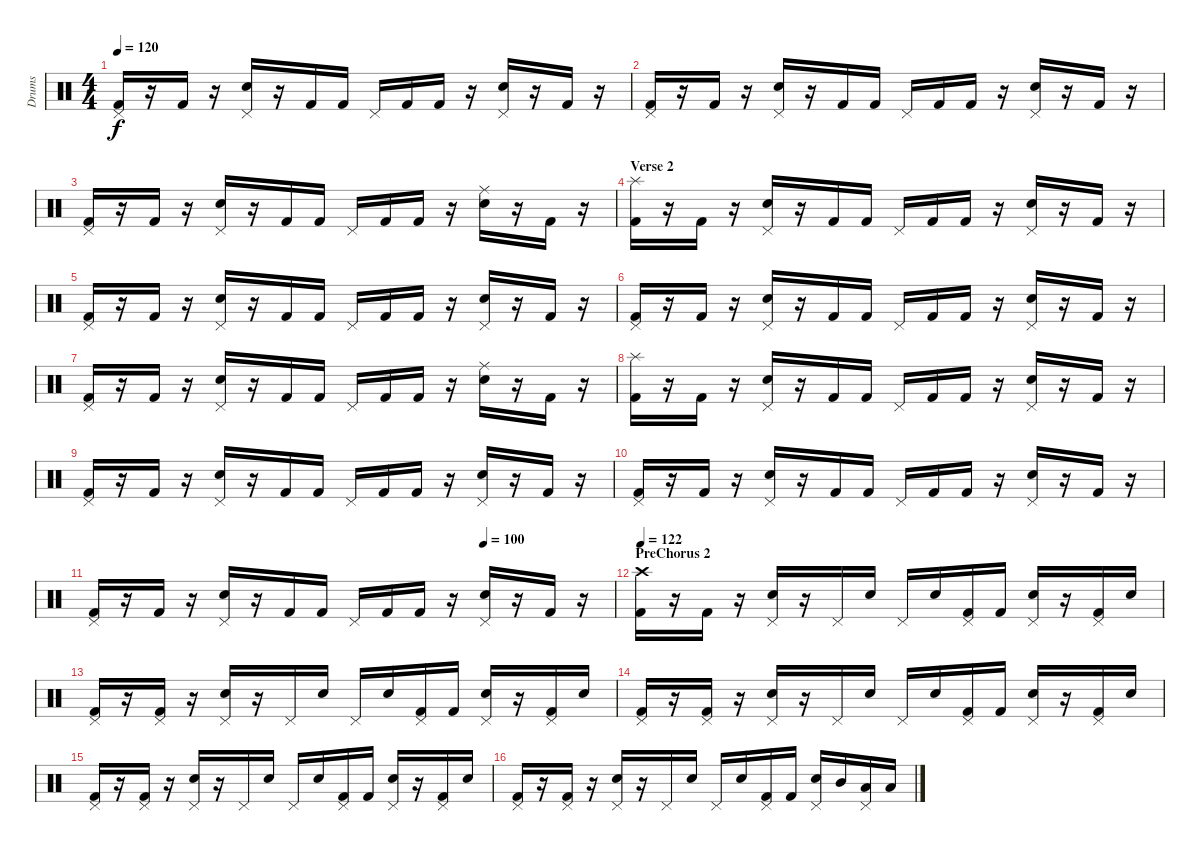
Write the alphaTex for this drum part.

\track ("Drums" "Drums") {instrument percussion}
\staff {score}
\articulation defaults
\ts (4 4)
\tempo 120
\clef neutral
\ks c
("Pedal Hi-Hat (hit)" "Kick (hit) 2").16{dy f} r.16 "Kick (hit) 2".16 r.16 ("Pedal Hi-Hat (hit)" "Snare (hit) 2").16 r.16 "Kick (hit) 2".16 "Kick (hit) 2".16 "Pedal Hi-Hat (hit)".16 "Kick (hit) 2".16 "Kick (hit) 2".16 r.16 ("Pedal Hi-Hat (hit)" "Snare (hit) 2").16 r.16 "Kick (hit) 2".16 r.16 |
("Pedal Hi-Hat (hit)" "Kick (hit) 2").16 r.16 "Kick (hit) 2".16 r.16 ("Pedal Hi-Hat (hit)" "Snare (hit) 2").16 r.16 "Kick (hit) 2".16 "Kick (hit) 2".16 "Pedal Hi-Hat (hit)".16 "Kick (hit) 2".16 "Kick (hit) 2".16 r.16 ("Pedal Hi-Hat (hit)" "Snare (hit) 2").16 r.16 "Kick (hit) 2".16 r.16 |
("Pedal Hi-Hat (hit)" "Kick (hit) 2").16 r.16 "Kick (hit) 2".16 r.16 ("Pedal Hi-Hat (hit)" "Snare (hit) 2").16 r.16 "Kick (hit) 2".16 "Kick (hit) 2".16 "Pedal Hi-Hat (hit)".16 "Kick (hit) 2".16 "Kick (hit) 2".16 r.16 ("Ride (middle)" "Snare (hit) 2").16 r.16 "Kick (hit) 2".16 r.16 |
\section ("" "Verse 2")
("Splash (hit)" "Kick (hit) 2").16 r.16 "Kick (hit) 2".16 r.16 ("Pedal Hi-Hat (hit)" "Snare (hit) 2").16 r.16 "Kick (hit) 2".16 "Kick (hit) 2".16 "Pedal Hi-Hat (hit)".16 "Kick (hit) 2".16 "Kick (hit) 2".16 r.16 ("Pedal Hi-Hat (hit)" "Snare (hit) 2").16 r.16 "Kick (hit) 2".16 r.16 |
("Pedal Hi-Hat (hit)" "Kick (hit) 2").16 r.16 "Kick (hit) 2".16 r.16 ("Pedal Hi-Hat (hit)" "Snare (hit) 2").16 r.16 "Kick (hit) 2".16 "Kick (hit) 2".16 "Pedal Hi-Hat (hit)".16 "Kick (hit) 2".16 "Kick (hit) 2".16 r.16 ("Pedal Hi-Hat (hit)" "Snare (hit) 2").16 r.16 "Kick (hit) 2".16 r.16 |
("Pedal Hi-Hat (hit)" "Kick (hit) 2").16 r.16 "Kick (hit) 2".16 r.16 ("Pedal Hi-Hat (hit)" "Snare (hit) 2").16 r.16 "Kick (hit) 2".16 "Kick (hit) 2".16 "Pedal Hi-Hat (hit)".16 "Kick (hit) 2".16 "Kick (hit) 2".16 r.16 ("Pedal Hi-Hat (hit)" "Snare (hit) 2").16 r.16 "Kick (hit) 2".16 r.16 |
("Pedal Hi-Hat (hit)" "Kick (hit) 2").16 r.16 "Kick (hit) 2".16 r.16 ("Pedal Hi-Hat (hit)" "Snare (hit) 2").16 r.16 "Kick (hit) 2".16 "Kick (hit) 2".16 "Pedal Hi-Hat (hit)".16 "Kick (hit) 2".16 "Kick (hit) 2".16 r.16 ("Ride (middle)" "Snare (hit) 2").16 r.16 "Kick (hit) 2".16 r.16 |
("Splash (hit)" "Kick (hit) 2").16 r.16 "Kick (hit) 2".16 r.16 ("Pedal Hi-Hat (hit)" "Snare (hit) 2").16 r.16 "Kick (hit) 2".16 "Kick (hit) 2".16 "Pedal Hi-Hat (hit)".16 "Kick (hit) 2".16 "Kick (hit) 2".16 r.16 ("Pedal Hi-Hat (hit)" "Snare (hit) 2").16 r.16 "Kick (hit) 2".16 r.16 |
("Pedal Hi-Hat (hit)" "Kick (hit) 2").16 r.16 "Kick (hit) 2".16 r.16 ("Pedal Hi-Hat (hit)" "Snare (hit) 2").16 r.16 "Kick (hit) 2".16 "Kick (hit) 2".16 "Pedal Hi-Hat (hit)".16 "Kick (hit) 2".16 "Kick (hit) 2".16 r.16 ("Pedal Hi-Hat (hit)" "Snare (hit) 2").16 r.16 "Kick (hit) 2".16 r.16 |
("Pedal Hi-Hat (hit)" "Kick (hit) 2").16 r.16 "Kick (hit) 2".16 r.16 ("Pedal Hi-Hat (hit)" "Snare (hit) 2").16 r.16 "Kick (hit) 2".16 "Kick (hit) 2".16 "Pedal Hi-Hat (hit)".16 "Kick (hit) 2".16 "Kick (hit) 2".16 r.16 ("Pedal Hi-Hat (hit)" "Snare (hit) 2").16 r.16 "Kick (hit) 2".16 r.16 |
\tempo (100 0.75)
("Pedal Hi-Hat (hit)" "Kick (hit) 2").16 r.16 "Kick (hit) 2".16 r.16 ("Pedal Hi-Hat (hit)" "Snare (hit) 2").16 r.16 "Kick (hit) 2".16 "Kick (hit) 2".16 "Pedal Hi-Hat (hit)".16 "Kick (hit) 2".16 "Kick (hit) 2".16 r.16 ("Pedal Hi-Hat (hit)" "Snare (hit) 2").16 r.16 "Kick (hit) 2".16 r.16 |
\section ("" "PreChorus 2")
\tempo 122
("Crash high (hit)" "Kick (hit) 2").16 r.16 "Kick (hit) 2".16 r.16 ("Pedal Hi-Hat (hit)" "Snare (hit) 2").16 r.16 "Pedal Hi-Hat (hit)".16 "Snare (hit) 2".16 "Pedal Hi-Hat (hit)".16 "Snare (hit) 2".16 ("Pedal Hi-Hat (hit)" "Kick (hit) 2").16 "Kick (hit) 2".16 ("Pedal Hi-Hat (hit)" "Snare (hit) 2").16 r.16 ("Pedal Hi-Hat (hit)" "Kick (hit) 2").16 "Snare (hit) 2".16 |
("Pedal Hi-Hat (hit)" "Kick (hit) 2").16 r.16 ("Pedal Hi-Hat (hit)" "Kick (hit) 2").16 r.16 ("Pedal Hi-Hat (hit)" "Snare (hit) 2").16 r.16 "Pedal Hi-Hat (hit)".16 "Snare (hit) 2".16 "Pedal Hi-Hat (hit)".16 "Snare (hit) 2".16 ("Pedal Hi-Hat (hit)" "Kick (hit) 2").16 "Kick (hit) 2".16 ("Pedal Hi-Hat (hit)" "Snare (hit) 2").16 r.16 ("Pedal Hi-Hat (hit)" "Kick (hit) 2").16 "Snare (hit) 2".16 |
("Pedal Hi-Hat (hit)" "Kick (hit) 2").16 r.16 ("Pedal Hi-Hat (hit)" "Kick (hit) 2").16 r.16 ("Pedal Hi-Hat (hit)" "Snare (hit) 2").16 r.16 "Pedal Hi-Hat (hit)".16 "Snare (hit) 2".16 "Pedal Hi-Hat (hit)".16 "Snare (hit) 2".16 ("Pedal Hi-Hat (hit)" "Kick (hit) 2").16 "Kick (hit) 2".16 ("Pedal Hi-Hat (hit)" "Snare (hit) 2").16 r.16 ("Pedal Hi-Hat (hit)" "Kick (hit) 2").16 "Snare (hit) 2".16 |
("Pedal Hi-Hat (hit)" "Kick (hit) 2").16 r.16 ("Pedal Hi-Hat (hit)" "Kick (hit) 2").16 r.16 ("Pedal Hi-Hat (hit)" "Snare (hit) 2").16 r.16 "Pedal Hi-Hat (hit)".16 "Snare (hit) 2".16 "Pedal Hi-Hat (hit)".16 "Snare (hit) 2".16 ("Pedal Hi-Hat (hit)" "Kick (hit) 2").16 "Kick (hit) 2".16 ("Pedal Hi-Hat (hit)" "Snare (hit) 2").16 r.16 ("Pedal Hi-Hat (hit)" "Kick (hit) 2").16 "Snare (hit) 2".16 |
("Pedal Hi-Hat (hit)" "Kick (hit) 2").16 r.16 ("Pedal Hi-Hat (hit)" "Kick (hit) 2").16 r.16 ("Pedal Hi-Hat (hit)" "Snare (hit) 2").16 r.16 "Pedal Hi-Hat (hit)".16 "Snare (hit) 2".16 "Pedal Hi-Hat (hit)".16 "Snare (hit) 2".16 ("Pedal Hi-Hat (hit)" "Kick (hit) 2").16 "Kick (hit) 2".16 ("Pedal Hi-Hat (hit)" "Snare (hit) 2").16 "Mid Tom (hit)".16 ("Pedal Hi-Hat (hit)" "Low Tom (hit)").16 "Low Tom (hit)".16
